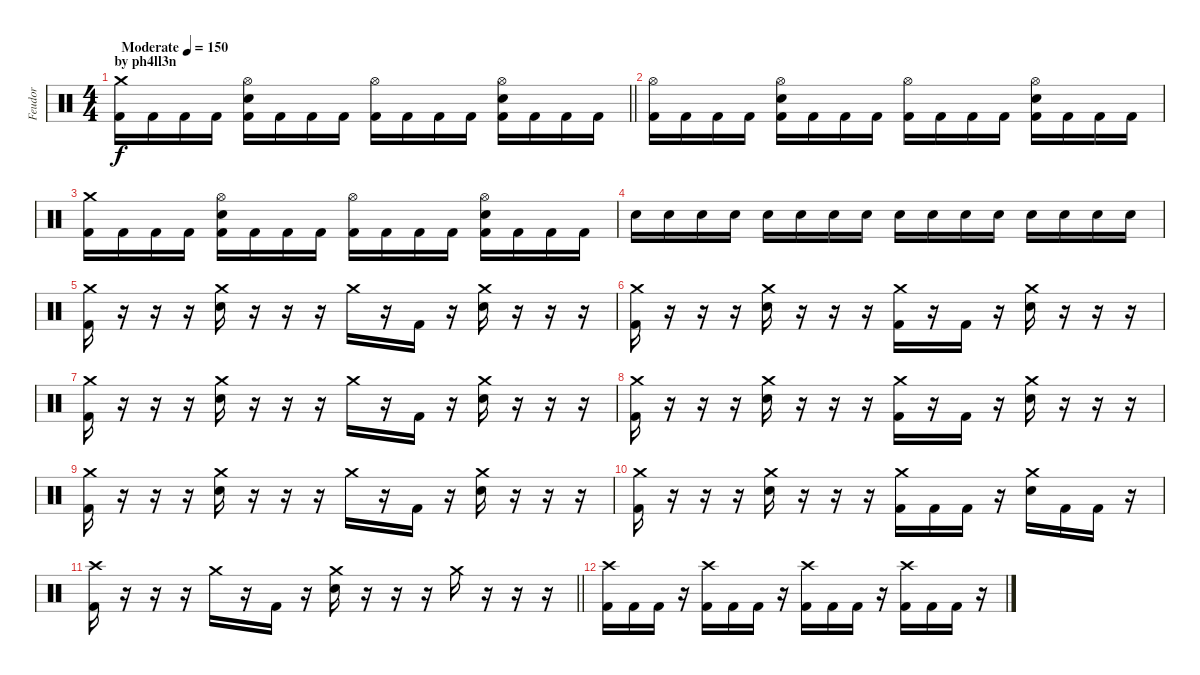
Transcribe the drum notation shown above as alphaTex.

\track ("Feudor" "Feudor") {instrument percussion}
\staff {score}
\articulation defaults
\ts (4 4)
\section ("" "by ph4ll3n")
\tempo (150 "Moderate")
\clef neutral
\barLineRight lightlight
\ks c
("Kick (hit) 2" "Crash medium (hit)").16{dy f} "Kick (hit) 2".16 "Kick (hit) 2".16 "Kick (hit) 2".16 ("Electric Snare (hit)" "Kick (hit) 2" "Hi-Hat (open)").16 "Kick (hit) 2".16 "Kick (hit) 2".16 "Kick (hit) 2".16 ("Hi-Hat (open)" "Kick (hit) 2").16 "Kick (hit) 2".16 "Kick (hit) 2".16 "Kick (hit) 2".16 ("Electric Snare (hit)" "Hi-Hat (open)" "Kick (hit) 2").16 "Kick (hit) 2".16 "Kick (hit) 2".16 "Kick (hit) 2".16 |
("Kick (hit) 2" "Hi-Hat (open)").16 "Kick (hit) 2".16 "Kick (hit) 2".16 "Kick (hit) 2".16 ("Electric Snare (hit)" "Kick (hit) 2" "Hi-Hat (open)").16 "Kick (hit) 2".16 "Kick (hit) 2".16 "Kick (hit) 2".16 ("Hi-Hat (open)" "Kick (hit) 2").16 "Kick (hit) 2".16 "Kick (hit) 2".16 "Kick (hit) 2".16 ("Electric Snare (hit)" "Hi-Hat (open)" "Kick (hit) 2").16 "Kick (hit) 2".16 "Kick (hit) 2".16 "Kick (hit) 2".16 |
("Kick (hit) 2" "Crash medium (hit)").16 "Kick (hit) 2".16 "Kick (hit) 2".16 "Kick (hit) 2".16 ("Electric Snare (hit)" "Kick (hit) 2" "Hi-Hat (open)").16 "Kick (hit) 2".16 "Kick (hit) 2".16 "Kick (hit) 2".16 ("Hi-Hat (open)" "Kick (hit) 2").16 "Kick (hit) 2".16 "Kick (hit) 2".16 "Kick (hit) 2".16 ("Electric Snare (hit)" "Hi-Hat (open)" "Kick (hit) 2").16 "Kick (hit) 2".16 "Kick (hit) 2".16 "Kick (hit) 2".16 |
"Electric Snare (hit)".16 "Electric Snare (hit)".16 "Electric Snare (hit)".16 "Electric Snare (hit)".16 "Electric Snare (hit)".16 "Electric Snare (hit)".16 "Electric Snare (hit)".16 "Electric Snare (hit)".16 "Electric Snare (hit)".16 "Electric Snare (hit)".16 "Electric Snare (hit)".16 "Electric Snare (hit)".16 "Electric Snare (hit)".16 "Electric Snare (hit)".16 "Electric Snare (hit)".16 "Electric Snare (hit)".16 |
("Kick (hit) 2" "Crash medium (hit)").16 r.16 r.16 r.16 ("Electric Snare (hit)" "Crash medium (hit)").16 r.16 r.16 r.16 "Crash medium (hit)".16 r.16 "Kick (hit) 2".16 r.16 ("Electric Snare (hit)" "Crash medium (hit)").16 r.16 r.16 r.16 |
("Kick (hit) 2" "Crash medium (hit)").16 r.16 r.16 r.16 ("Electric Snare (hit)" "Crash medium (hit)").16 r.16 r.16 r.16 ("Kick (hit) 2" "Crash medium (hit)").16 r.16 "Kick (hit) 2".16 r.16 ("Electric Snare (hit)" "Crash medium (hit)").16 r.16 r.16 r.16 |
("Kick (hit) 2" "Crash medium (hit)").16 r.16 r.16 r.16 ("Electric Snare (hit)" "Crash medium (hit)").16 r.16 r.16 r.16 "Crash medium (hit)".16 r.16 "Kick (hit) 2".16 r.16 ("Electric Snare (hit)" "Crash medium (hit)").16 r.16 r.16 r.16 |
("Kick (hit) 2" "Crash medium (hit)").16 r.16 r.16 r.16 ("Electric Snare (hit)" "Crash medium (hit)").16 r.16 r.16 r.16 ("Kick (hit) 2" "Crash medium (hit)").16 r.16 "Kick (hit) 2".16 r.16 ("Electric Snare (hit)" "Crash medium (hit)").16 r.16 r.16 r.16 |
("Kick (hit) 2" "Crash medium (hit)").16 r.16 r.16 r.16 ("Electric Snare (hit)" "Crash medium (hit)").16 r.16 r.16 r.16 "Crash medium (hit)".16 r.16 "Kick (hit) 2".16 r.16 ("Electric Snare (hit)" "Crash medium (hit)").16 r.16 r.16 r.16 |
("Kick (hit) 2" "Crash medium (hit)").16 r.16 r.16 r.16 ("Electric Snare (hit)" "Crash medium (hit)").16 r.16 r.16 r.16 ("Kick (hit) 2" "Crash medium (hit)").16 "Kick (hit) 2".16 "Kick (hit) 2".16 r.16 ("Electric Snare (hit)" "Crash medium (hit)").16 "Kick (hit) 2".16 "Kick (hit) 2".16 r.16 |
\barLineRight lightlight
("Kick (hit) 2" "Crash high (hit)").16 r.16 r.16 r.16 "Crash medium (hit)".16 r.16 "Kick (hit) 2".16 r.16 ("Electric Snare (hit)" "Crash medium (hit)").16 r.16 r.16 r.16 "Crash medium (hit)".16 r.16 r.16 r.16 |
("Kick (hit) 2" "Crash high (hit)").16 "Kick (hit) 2".16 "Kick (hit) 2".16 r.16 ("Kick (hit) 2" "Crash high (hit)").16 "Kick (hit) 2".16 "Kick (hit) 2".16 r.16 ("Kick (hit) 2" "Crash high (hit)").16 "Kick (hit) 2".16 "Kick (hit) 2".16 r.16 ("Kick (hit) 2" "Crash high (hit)").16 "Kick (hit) 2".16 "Kick (hit) 2".16 r.16
